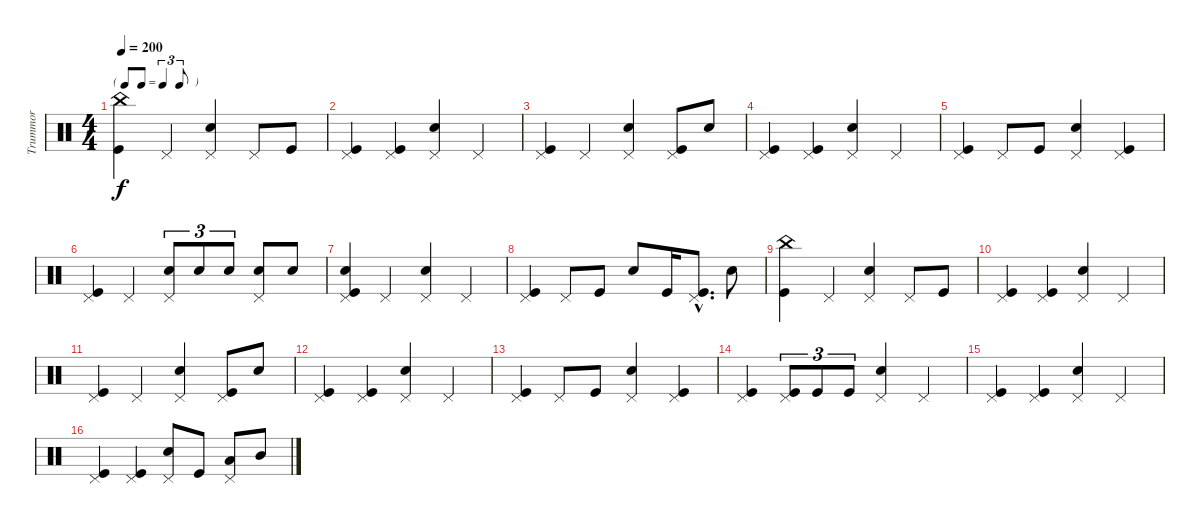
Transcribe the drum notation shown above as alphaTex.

\track ("Trummor" "Trummor") {instrument percussion}
\staff {score}
\articulation defaults
\ts (4 4)
\tf triplet8th
\tempo 200
\clef neutral
\ks c
("China (hit)" "Kick (hit)").4{dy f} "Pedal Hi-Hat (hit)".4 ("Pedal Hi-Hat (hit)" "Snare (hit) 2").4 "Pedal Hi-Hat (hit)".8 "Kick (hit)".8 |
("Pedal Hi-Hat (hit)" "Kick (hit)").4 ("Pedal Hi-Hat (hit)" "Kick (hit)").4 ("Pedal Hi-Hat (hit)" "Snare (hit) 2").4 "Pedal Hi-Hat (hit)".4 |
("Pedal Hi-Hat (hit)" "Kick (hit)").4 "Pedal Hi-Hat (hit)".4 ("Pedal Hi-Hat (hit)" "Snare (hit) 2").4 ("Pedal Hi-Hat (hit)" "Kick (hit)").8 "Snare (hit) 2".8 |
("Pedal Hi-Hat (hit)" "Kick (hit)").4 ("Pedal Hi-Hat (hit)" "Kick (hit)").4 ("Pedal Hi-Hat (hit)" "Snare (hit) 2").4 "Pedal Hi-Hat (hit)".4 |
("Pedal Hi-Hat (hit)" "Kick (hit)").4 "Pedal Hi-Hat (hit)".8 "Kick (hit)".8 ("Pedal Hi-Hat (hit)" "Snare (hit) 2").4 ("Pedal Hi-Hat (hit)" "Kick (hit)").4 |
("Pedal Hi-Hat (hit)" "Kick (hit)").4 "Pedal Hi-Hat (hit)".4 ("Pedal Hi-Hat (hit)" "Snare (hit) 2").8{tu (3 2)} "Snare (hit) 2".8{tu (3 2)} "Snare (hit) 2".8{tu (3 2)} ("Pedal Hi-Hat (hit)" "Snare (hit) 2").8 "Snare (hit) 2".8 |
("Pedal Hi-Hat (hit)" "Snare (hit) 2" "Kick (hit)").4 "Pedal Hi-Hat (hit)".4 ("Pedal Hi-Hat (hit)" "Snare (hit) 2").4 "Pedal Hi-Hat (hit)".4 |
("Pedal Hi-Hat (hit)" "Kick (hit)").4 "Pedal Hi-Hat (hit)".8 "Kick (hit)".8 "Snare (hit) 2".8 "Kick (hit)".16 ("Pedal Hi-Hat (hit)"{hac} "Kick (hit)"{hac}).8{d} "Snare (hit) 2".8 |
("China (hit)" "Kick (hit)").4 "Pedal Hi-Hat (hit)".4 ("Pedal Hi-Hat (hit)" "Snare (hit) 2").4 "Pedal Hi-Hat (hit)".8 "Kick (hit)".8 |
("Pedal Hi-Hat (hit)" "Kick (hit)").4 ("Pedal Hi-Hat (hit)" "Kick (hit)").4 ("Pedal Hi-Hat (hit)" "Snare (hit) 2").4 "Pedal Hi-Hat (hit)".4 |
("Pedal Hi-Hat (hit)" "Kick (hit)").4 "Pedal Hi-Hat (hit)".4 ("Pedal Hi-Hat (hit)" "Snare (hit) 2").4 ("Pedal Hi-Hat (hit)" "Kick (hit)").8 "Snare (hit) 2".8 |
("Pedal Hi-Hat (hit)" "Kick (hit)").4 ("Pedal Hi-Hat (hit)" "Kick (hit)").4 ("Pedal Hi-Hat (hit)" "Snare (hit) 2").4 "Pedal Hi-Hat (hit)".4 |
("Pedal Hi-Hat (hit)" "Kick (hit)").4 "Pedal Hi-Hat (hit)".8 "Kick (hit)".8 ("Pedal Hi-Hat (hit)" "Snare (hit) 2").4 ("Pedal Hi-Hat (hit)" "Kick (hit)").4 |
("Pedal Hi-Hat (hit)" "Kick (hit)").4 ("Pedal Hi-Hat (hit)" "Kick (hit)").8{tu (3 2)} "Kick (hit)".8{tu (3 2)} "Kick (hit)".8{tu (3 2)} ("Pedal Hi-Hat (hit)" "Snare (hit) 2").4 "Pedal Hi-Hat (hit)".4 |
("Pedal Hi-Hat (hit)" "Kick (hit)").4 ("Pedal Hi-Hat (hit)" "Kick (hit)").4 ("Pedal Hi-Hat (hit)" "Snare (hit) 2").4 "Pedal Hi-Hat (hit)".4 |
("Pedal Hi-Hat (hit)" "Kick (hit)").4 ("Pedal Hi-Hat (hit)" "Kick (hit)").4 ("Pedal Hi-Hat (hit)" "Snare (hit) 2").8 "Kick (hit)".8 ("Pedal Hi-Hat (hit)" "Low Tom (hit)").8 "Mid Tom (hit)".8
